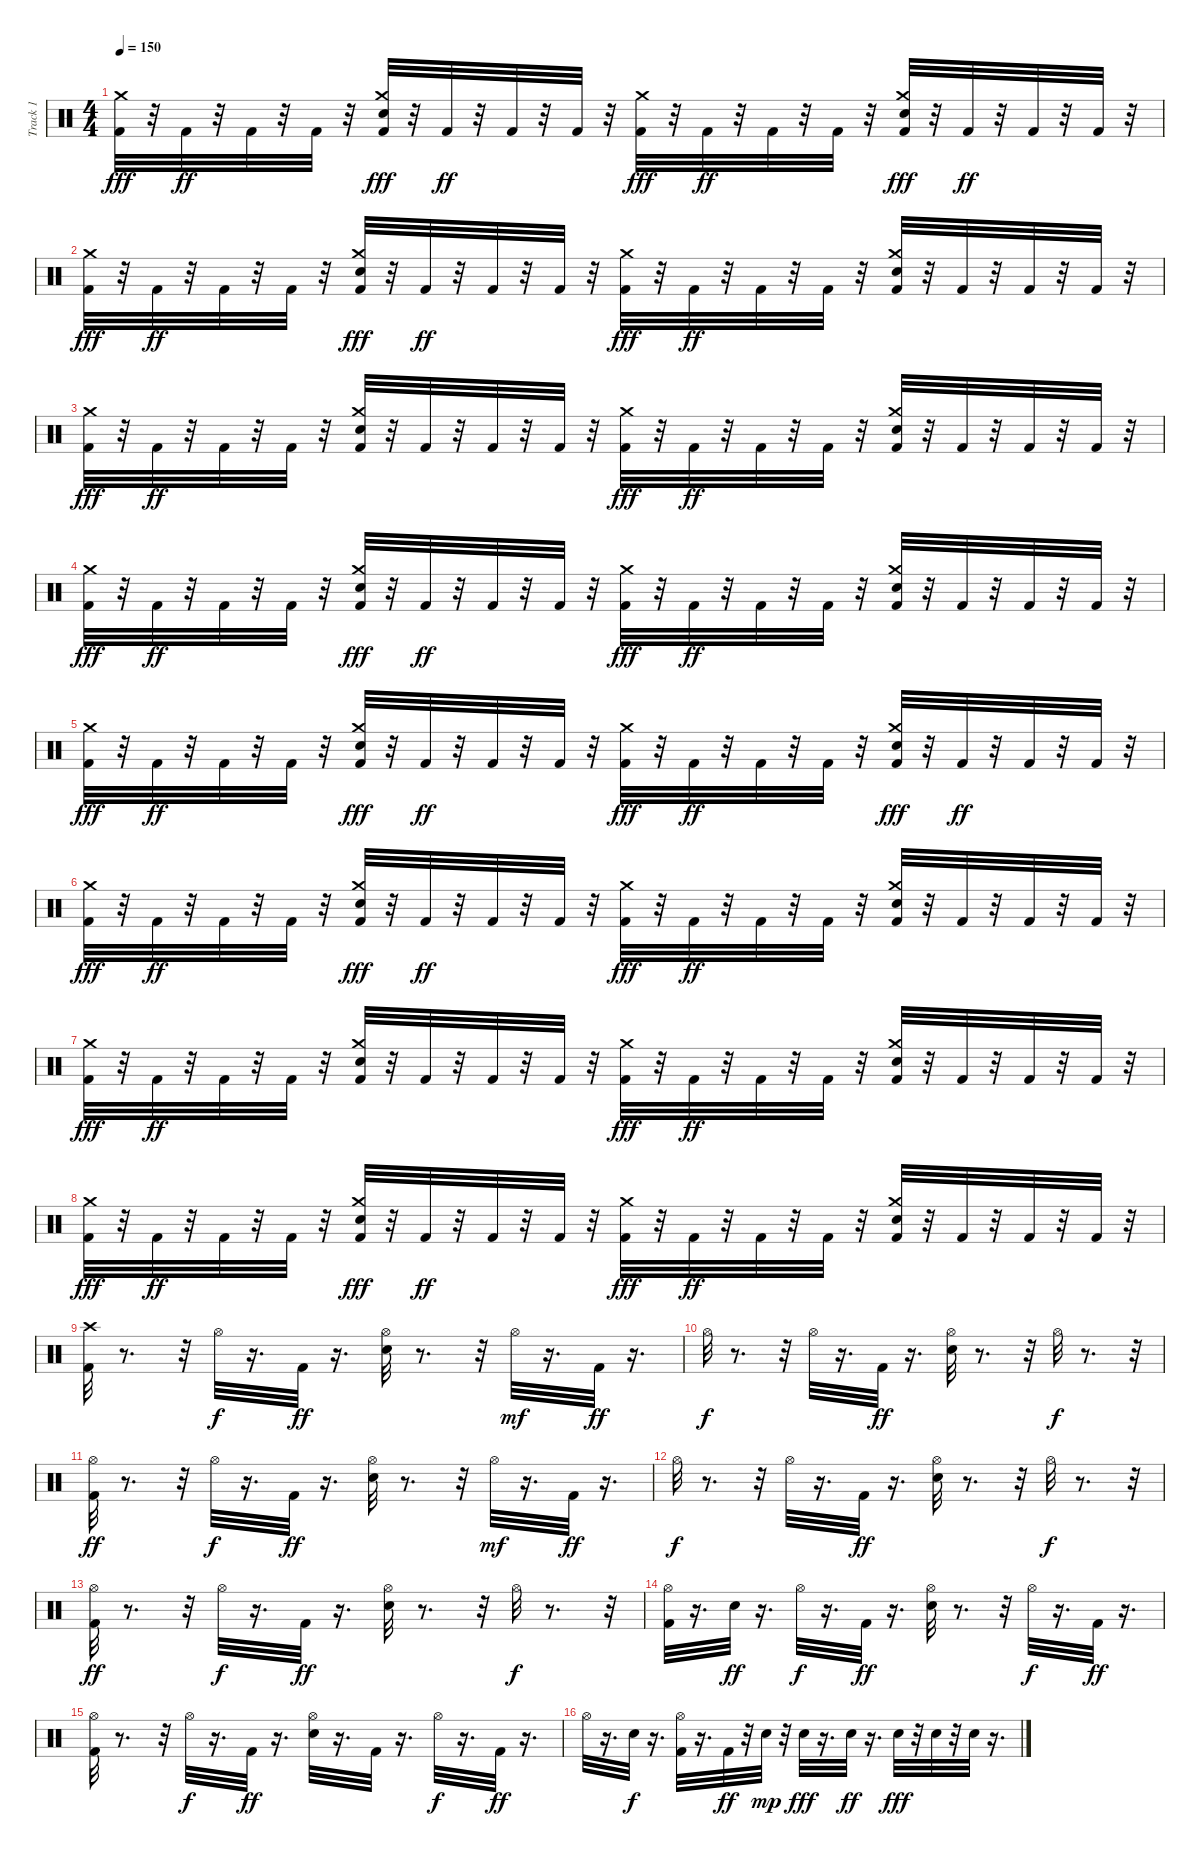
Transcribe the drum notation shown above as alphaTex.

\track ("Track 1" "Track 1") {instrument percussion}
\staff {score}
\articulation defaults
\ts (4 4)
\tempo 150
\clef neutral
\ks c
("Kick (hit) 2" "Crash medium (hit)").32{dy fff} r.32 "Kick (hit) 2".32{dy ff} r.32 "Kick (hit) 2".32 r.32 "Kick (hit) 2".32 r.32 ("Crash medium (hit)" "Kick (hit) 2" "Snare (hit) 2").32{dy fff} r.32 "Kick (hit) 2".32{dy ff} r.32 "Kick (hit) 2".32 r.32 "Kick (hit) 2".32 r.32 ("Kick (hit) 2" "Crash medium (hit)").32{dy fff} r.32 "Kick (hit) 2".32{dy ff} r.32 "Kick (hit) 2".32 r.32 "Kick (hit) 2".32 r.32 ("Crash medium (hit)" "Kick (hit) 2" "Snare (hit) 2").32{dy fff} r.32 "Kick (hit) 2".32{dy ff} r.32 "Kick (hit) 2".32 r.32 "Kick (hit) 2".32 r.32 |
("Kick (hit) 2" "Crash medium (hit)").32{dy fff} r.32 "Kick (hit) 2".32{dy ff} r.32 "Kick (hit) 2".32 r.32 "Kick (hit) 2".32 r.32 ("Crash medium (hit)" "Kick (hit) 2" "Snare (hit) 2").32{dy fff} r.32 "Kick (hit) 2".32{dy ff} r.32 "Kick (hit) 2".32 r.32 "Kick (hit) 2".32 r.32 ("Kick (hit) 2" "Crash medium (hit)").32{dy fff} r.32 "Kick (hit) 2".32{dy ff} r.32 "Kick (hit) 2".32 r.32 "Kick (hit) 2".32 r.32 ("Snare (hit) 2" "Crash medium (hit)" "Kick (hit) 2").32 r.32 "Kick (hit) 2".32 r.32 "Kick (hit) 2".32 r.32 "Kick (hit) 2".32 r.32 |
("Kick (hit) 2" "Crash medium (hit)").32{dy fff} r.32 "Kick (hit) 2".32{dy ff} r.32 "Kick (hit) 2".32 r.32 "Kick (hit) 2".32 r.32 ("Crash medium (hit)" "Snare (hit) 2" "Kick (hit) 2").32 r.32 "Kick (hit) 2".32 r.32 "Kick (hit) 2".32 r.32 "Kick (hit) 2".32 r.32 ("Kick (hit) 2" "Crash medium (hit)").32{dy fff} r.32 "Kick (hit) 2".32{dy ff} r.32 "Kick (hit) 2".32 r.32 "Kick (hit) 2".32 r.32 ("Snare (hit) 2" "Crash medium (hit)" "Kick (hit) 2").32 r.32 "Kick (hit) 2".32 r.32 "Kick (hit) 2".32 r.32 "Kick (hit) 2".32 r.32 |
("Kick (hit) 2" "Crash medium (hit)").32{dy fff} r.32 "Kick (hit) 2".32{dy ff} r.32 "Kick (hit) 2".32 r.32 "Kick (hit) 2".32 r.32 ("Crash medium (hit)" "Kick (hit) 2" "Snare (hit) 2").32{dy fff} r.32 "Kick (hit) 2".32{dy ff} r.32 "Kick (hit) 2".32 r.32 "Kick (hit) 2".32 r.32 ("Kick (hit) 2" "Crash medium (hit)").32{dy fff} r.32 "Kick (hit) 2".32{dy ff} r.32 "Kick (hit) 2".32 r.32 "Kick (hit) 2".32 r.32 ("Crash medium (hit)" "Snare (hit) 2" "Kick (hit) 2").32 r.32 "Kick (hit) 2".32 r.32 "Kick (hit) 2".32 r.32 "Kick (hit) 2".32 r.32 |
("Kick (hit) 2" "Crash medium (hit)").32{dy fff} r.32 "Kick (hit) 2".32{dy ff} r.32 "Kick (hit) 2".32 r.32 "Kick (hit) 2".32 r.32 ("Crash medium (hit)" "Kick (hit) 2" "Snare (hit) 2").32{dy fff} r.32 "Kick (hit) 2".32{dy ff} r.32 "Kick (hit) 2".32 r.32 "Kick (hit) 2".32 r.32 ("Kick (hit) 2" "Crash medium (hit)").32{dy fff} r.32 "Kick (hit) 2".32{dy ff} r.32 "Kick (hit) 2".32 r.32 "Kick (hit) 2".32 r.32 ("Crash medium (hit)" "Kick (hit) 2" "Snare (hit) 2").32{dy fff} r.32 "Kick (hit) 2".32{dy ff} r.32 "Kick (hit) 2".32 r.32 "Kick (hit) 2".32 r.32 |
("Kick (hit) 2" "Crash medium (hit)").32{dy fff} r.32 "Kick (hit) 2".32{dy ff} r.32 "Kick (hit) 2".32 r.32 "Kick (hit) 2".32 r.32 ("Crash medium (hit)" "Kick (hit) 2" "Snare (hit) 2").32{dy fff} r.32 "Kick (hit) 2".32{dy ff} r.32 "Kick (hit) 2".32 r.32 "Kick (hit) 2".32 r.32 ("Kick (hit) 2" "Crash medium (hit)").32{dy fff} r.32 "Kick (hit) 2".32{dy ff} r.32 "Kick (hit) 2".32 r.32 "Kick (hit) 2".32 r.32 ("Snare (hit) 2" "Crash medium (hit)" "Kick (hit) 2").32 r.32 "Kick (hit) 2".32 r.32 "Kick (hit) 2".32 r.32 "Kick (hit) 2".32 r.32 |
("Kick (hit) 2" "Crash medium (hit)").32{dy fff} r.32 "Kick (hit) 2".32{dy ff} r.32 "Kick (hit) 2".32 r.32 "Kick (hit) 2".32 r.32 ("Crash medium (hit)" "Snare (hit) 2" "Kick (hit) 2").32 r.32 "Kick (hit) 2".32 r.32 "Kick (hit) 2".32 r.32 "Kick (hit) 2".32 r.32 ("Kick (hit) 2" "Crash medium (hit)").32{dy fff} r.32 "Kick (hit) 2".32{dy ff} r.32 "Kick (hit) 2".32 r.32 "Kick (hit) 2".32 r.32 ("Snare (hit) 2" "Crash medium (hit)" "Kick (hit) 2").32 r.32 "Kick (hit) 2".32 r.32 "Kick (hit) 2".32 r.32 "Kick (hit) 2".32 r.32 |
("Kick (hit) 2" "Crash medium (hit)").32{dy fff} r.32 "Kick (hit) 2".32{dy ff} r.32 "Kick (hit) 2".32 r.32 "Kick (hit) 2".32 r.32 ("Crash medium (hit)" "Kick (hit) 2" "Snare (hit) 2").32{dy fff} r.32 "Kick (hit) 2".32{dy ff} r.32 "Kick (hit) 2".32 r.32 "Kick (hit) 2".32 r.32 ("Kick (hit) 2" "Crash medium (hit)").32{dy fff} r.32 "Kick (hit) 2".32{dy ff} r.32 "Kick (hit) 2".32 r.32 "Kick (hit) 2".32 r.32 ("Crash medium (hit)" "Snare (hit) 2" "Kick (hit) 2").32 r.32 "Kick (hit) 2".32 r.32 "Kick (hit) 2".32 r.32 "Kick (hit) 2".32 r.32 |
("Crash high (hit)" "Kick (hit) 2").32 r.8{d} r.32 "Hi-Hat (open)".32{dy f} r.16{d} "Kick (hit) 2".32{dy ff} r.16{d} ("Hi-Hat (open)" "Snare (hit) 2").32 r.8{d} r.32 "Hi-Hat (open)".32{dy mf} r.16{d} "Kick (hit) 2".32{dy ff} r.16{d} |
"Hi-Hat (open)".32{dy f} r.8{d} r.32 "Hi-Hat (open)".32 r.16{d} "Kick (hit) 2".32{dy ff} r.16{d} ("Hi-Hat (open)" "Snare (hit) 2").32 r.8{d} r.32 "Hi-Hat (open)".32{dy f} r.8{d} r.32 |
("Hi-Hat (open)" "Kick (hit) 2").32{dy ff} r.8{d} r.32 "Hi-Hat (open)".32{dy f} r.16{d} "Kick (hit) 2".32{dy ff} r.16{d} ("Hi-Hat (open)" "Snare (hit) 2").32 r.8{d} r.32 "Hi-Hat (open)".32{dy mf} r.16{d} "Kick (hit) 2".32{dy ff} r.16{d} |
"Hi-Hat (open)".32{dy f} r.8{d} r.32 "Hi-Hat (open)".32 r.16{d} "Kick (hit) 2".32{dy ff} r.16{d} ("Hi-Hat (open)" "Snare (hit) 2").32 r.8{d} r.32 "Hi-Hat (open)".32{dy f} r.8{d} r.32 |
("Hi-Hat (open)" "Kick (hit) 2").32{dy ff} r.8{d} r.32 "Hi-Hat (open)".32{dy f} r.16{d} "Kick (hit) 2".32{dy ff} r.16{d} ("Hi-Hat (open)" "Snare (hit) 2").32 r.8{d} r.32 "Hi-Hat (open)".32{dy f} r.8{d} r.32 |
("Hi-Hat (open)" "Kick (hit) 2").32 r.16{d} "Snare (hit) 2".32{dy ff} r.16{d} "Hi-Hat (open)".32{dy f} r.16{d} "Kick (hit) 2".32{dy ff} r.16{d} ("Snare (hit) 2" "Hi-Hat (open)").32 r.8{d} r.32 "Hi-Hat (open)".32{dy f} r.16{d} "Kick (hit) 2".32{dy ff} r.16{d} |
("Hi-Hat (open)" "Kick (hit) 2").32 r.8{d} r.32 "Hi-Hat (open)".32{dy f} r.16{d} "Kick (hit) 2".32{dy ff} r.16{d} ("Hi-Hat (open)" "Snare (hit) 2").32 r.16{d} "Kick (hit) 2".32 r.16{d} "Hi-Hat (open)".32{dy f} r.16{d} "Kick (hit) 2".32{dy ff} r.16{d} |
"Hi-Hat (open)".32 r.16{d} "Snare (hit) 2".32{dy f} r.16{d} ("Kick (hit) 2" "Hi-Hat (open)").32 r.16{d} "Kick (hit) 2".32{dy ff} r.32 "Snare (hit) 2".32{dy mp} r.32 "Electric Snare (hit)".32{dy fff} r.16{d} "Snare (hit) 2".32{dy ff} r.16{d} "Electric Snare (hit)".32{dy fff} r.32 "Snare (hit) 2".32 r.32 "Snare (hit) 2".32 r.16{d}
